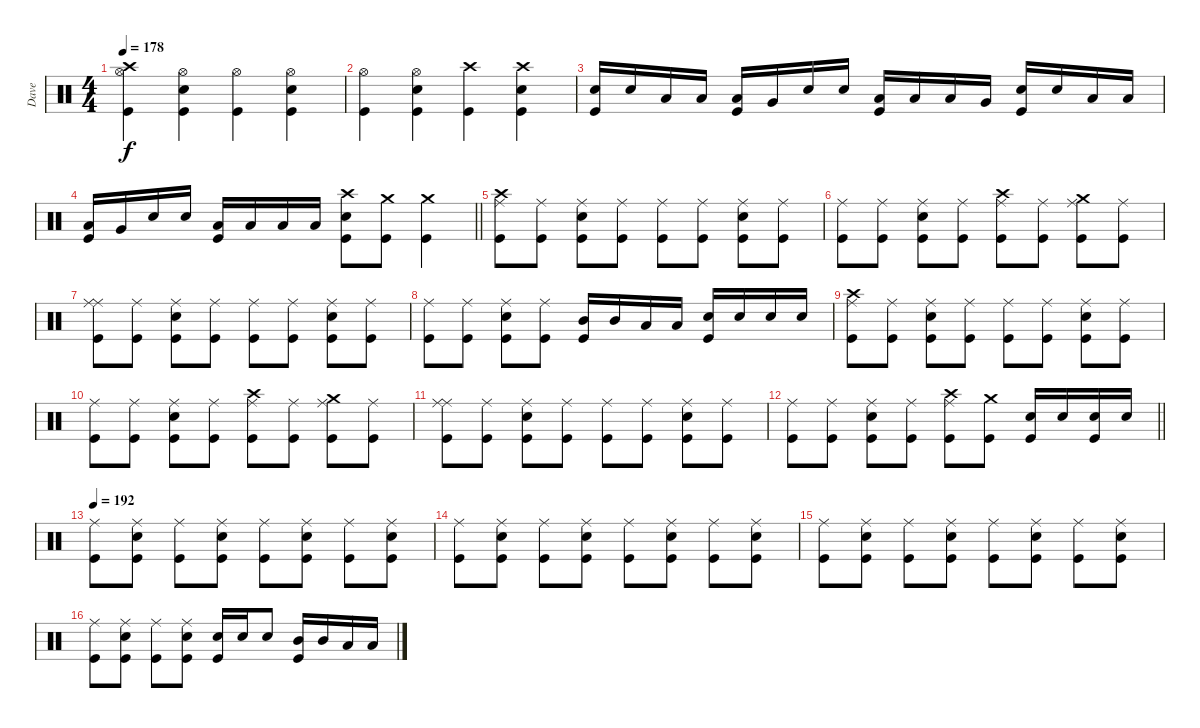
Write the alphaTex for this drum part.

\track ("Dave" "Dave") {instrument percussion}
\staff {score}
\articulation defaults
\ts (4 4)
\tempo 178
\clef neutral
\ks c
("Hi-Hat (open)" "Crash high (hit)" "Kick (hit)").4{dy f} ("Hi-Hat (open)" "Snare (hit) 2" "Kick (hit)").4 ("Hi-Hat (open)" "Kick (hit)").4 ("Hi-Hat (open)" "Snare (hit) 2" "Kick (hit)").4 |
("Hi-Hat (open)" "Kick (hit)").4 ("Hi-Hat (open)" "Snare (hit) 2" "Kick (hit)").4 ("Crash high (hit)" "Kick (hit)").4 ("Crash high (hit)" "Snare (hit) 2" "Kick (hit)").4 |
("Kick (hit)" "Snare (hit) 2").16 "Snare (hit) 2".16 "Low Tom (hit)".16 "Low Tom (hit)".16 ("Kick (hit)" "Low Tom (hit)").16 "Very Low Tom (hit)".16 "Snare (hit) 2".16 "Snare (hit) 2".16 ("Kick (hit)" "Low Tom (hit)").16 "Low Tom (hit)".16 "Low Tom (hit)".16 "Very Low Tom (hit)".16 ("Kick (hit)" "Snare (hit) 2").16 "Snare (hit) 2".16 "Low Tom (hit)".16 "Low Tom (hit)".16 |
\barLineRight lightlight
("Kick (hit)" "Low Tom (hit)").16 "Very Low Tom (hit)".16 "Snare (hit) 2".16 "Snare (hit) 2".16 ("Kick (hit)" "Low Tom (hit)").16 "Low Tom (hit)".16 "Low Tom (hit)".16 "Low Tom (hit)".16 ("Snare (hit) 2" "Crash high (hit)" "Kick (hit)").8 ("Crash medium (hit)" "Kick (hit)").8 ("Crash medium (hit)" "Kick (hit)").4 |
("Crash high (hit)" "Ride (middle)" "Kick (hit)").8 ("Ride (middle)" "Kick (hit)").8 ("Ride (middle)" "Snare (hit) 2" "Kick (hit)").8 ("Ride (middle)" "Kick (hit)").8 ("Ride (middle)" "Kick (hit)").8 ("Ride (middle)" "Kick (hit)").8 ("Ride (middle)" "Snare (hit) 2" "Kick (hit)").8 ("Ride (middle)" "Kick (hit)").8 |
("Ride (middle)" "Kick (hit)").8 ("Ride (middle)" "Kick (hit)").8 ("Ride (middle)" "Snare (hit) 2" "Kick (hit)").8 ("Ride (middle)" "Kick (hit)").8 ("Crash high (hit)" "Ride (middle)" "Kick (hit)").8 ("Ride (middle)" "Kick (hit)").8 ("Crash medium (hit)" "Ride (middle)" "Kick (hit)").8 ("Ride (middle)" "Kick (hit)").8 |
("Ride (middle)" "Ride (middle)" "Kick (hit)").8 ("Ride (middle)" "Kick (hit)").8 ("Ride (middle)" "Snare (hit) 2" "Kick (hit)").8 ("Ride (middle)" "Kick (hit)").8 ("Ride (middle)" "Kick (hit)").8 ("Ride (middle)" "Kick (hit)").8 ("Ride (middle)" "Snare (hit) 2" "Kick (hit)").8 ("Ride (middle)" "Kick (hit)").8 |
("Ride (middle)" "Kick (hit)").8 ("Ride (middle)" "Kick (hit)").8 ("Ride (middle)" "Snare (hit) 2" "Kick (hit)").8 ("Ride (middle)" "Kick (hit)").8 ("Kick (hit)" "Mid Tom (hit)").16 "Mid Tom (hit)".16 "Low Tom (hit)".16 "Low Tom (hit)".16 ("Kick (hit)" "Snare (hit) 2").16 "Snare (hit) 2".16 "Snare (hit) 2".16 "Snare (hit) 2".16 |
("Crash high (hit)" "Ride (middle)" "Kick (hit)").8 ("Ride (middle)" "Kick (hit)").8 ("Ride (middle)" "Snare (hit) 2" "Kick (hit)").8 ("Ride (middle)" "Kick (hit)").8 ("Ride (middle)" "Kick (hit)").8 ("Ride (middle)" "Kick (hit)").8 ("Ride (middle)" "Snare (hit) 2" "Kick (hit)").8 ("Ride (middle)" "Kick (hit)").8 |
("Ride (middle)" "Kick (hit)").8 ("Ride (middle)" "Kick (hit)").8 ("Ride (middle)" "Snare (hit) 2" "Kick (hit)").8 ("Ride (middle)" "Kick (hit)").8 ("Crash high (hit)" "Ride (middle)" "Kick (hit)").8 ("Ride (middle)" "Kick (hit)").8 ("Crash medium (hit)" "Ride (middle)" "Kick (hit)").8 ("Ride (middle)" "Kick (hit)").8 |
("Ride (middle)" "Ride (middle)" "Kick (hit)").8 ("Ride (middle)" "Kick (hit)").8 ("Ride (middle)" "Snare (hit) 2" "Kick (hit)").8 ("Ride (middle)" "Kick (hit)").8 ("Ride (middle)" "Kick (hit)").8 ("Ride (middle)" "Kick (hit)").8 ("Ride (middle)" "Snare (hit) 2" "Kick (hit)").8 ("Ride (middle)" "Kick (hit)").8 |
\barLineRight lightlight
("Ride (middle)" "Kick (hit)").8 ("Ride (middle)" "Kick (hit)").8 ("Ride (middle)" "Snare (hit) 2" "Kick (hit)").8 ("Ride (middle)" "Kick (hit)").8 ("Crash high (hit)" "Ride (middle)" "Kick (hit)").8 ("Crash medium (hit)" "Kick (hit)").8 ("Kick (hit)" "Snare (hit) 2").16 "Snare (hit) 2".16 ("Kick (hit)" "Snare (hit) 2").16 "Snare (hit) 2".16 |
\tempo 192
("Ride (middle)" "Kick (hit)").8 ("Ride (middle)" "Snare (hit) 2" "Kick (hit)").8 ("Ride (middle)" "Kick (hit)").8 ("Ride (middle)" "Snare (hit) 2" "Kick (hit)").8 ("Ride (middle)" "Kick (hit)").8 ("Ride (middle)" "Snare (hit) 2" "Kick (hit)").8 ("Ride (middle)" "Kick (hit)").8 ("Ride (middle)" "Snare (hit) 2" "Kick (hit)").8 |
("Ride (middle)" "Kick (hit)").8 ("Ride (middle)" "Snare (hit) 2" "Kick (hit)").8 ("Ride (middle)" "Kick (hit)").8 ("Ride (middle)" "Snare (hit) 2" "Kick (hit)").8 ("Ride (middle)" "Kick (hit)").8 ("Ride (middle)" "Snare (hit) 2" "Kick (hit)").8 ("Ride (middle)" "Kick (hit)").8 ("Ride (middle)" "Snare (hit) 2" "Kick (hit)").8 |
("Ride (middle)" "Kick (hit)").8 ("Ride (middle)" "Snare (hit) 2" "Kick (hit)").8 ("Ride (middle)" "Kick (hit)").8 ("Ride (middle)" "Snare (hit) 2" "Kick (hit)").8 ("Ride (middle)" "Kick (hit)").8 ("Ride (middle)" "Snare (hit) 2" "Kick (hit)").8 ("Ride (middle)" "Kick (hit)").8 ("Ride (middle)" "Snare (hit) 2" "Kick (hit)").8 |
("Ride (middle)" "Kick (hit)").8 ("Ride (middle)" "Snare (hit) 2" "Kick (hit)").8 ("Ride (middle)" "Kick (hit)").8 ("Ride (middle)" "Snare (hit) 2" "Kick (hit)").8 ("Snare (hit) 2" "Kick (hit)").16 "Snare (hit) 2".16 "Snare (hit) 2".8 ("Mid Tom (hit)" "Kick (hit)").16 "Mid Tom (hit)".16 "Low Tom (hit)".16 "Low Tom (hit)".16
